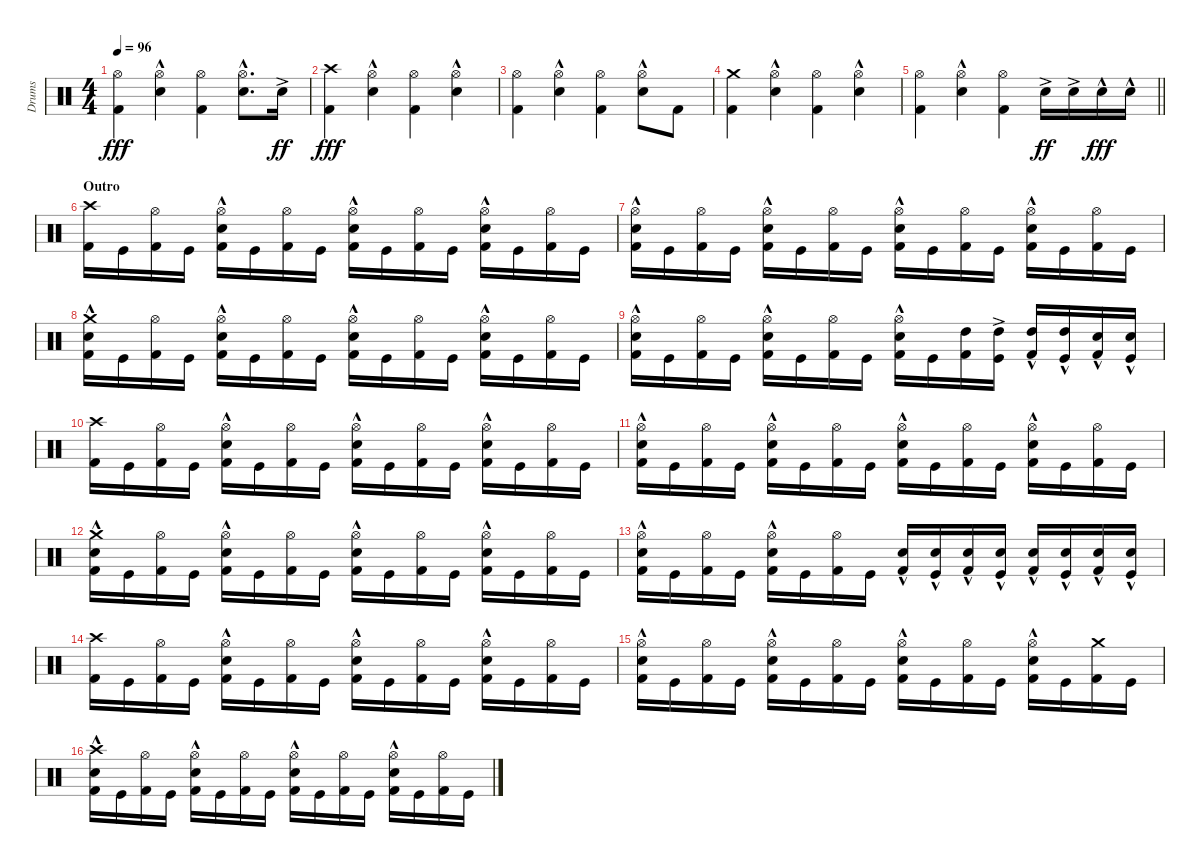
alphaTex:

\track ("Drums" "Drums") {instrument percussion}
\staff {score}
\articulation defaults
\ts (4 4)
\tempo 96
\clef neutral
\ks c
("Hi-Hat (open)" "Kick (hit) 2").4{dy fff} ("Hi-Hat (open)" "Electric Snare (hit)"{hac}).4 ("Hi-Hat (open)" "Kick (hit) 2").4 ("Hi-Hat (open)" "Electric Snare (hit)"{hac}).8{d} "Electric Snare (hit)"{ac}.16{dy ff} |
("Crash high (hit)" "Kick (hit) 2").4{dy fff} ("Hi-Hat (open)" "Electric Snare (hit)"{hac}).4 ("Hi-Hat (open)" "Kick (hit) 2").4 ("Hi-Hat (open)" "Electric Snare (hit)"{hac}).4 |
("Hi-Hat (open)" "Kick (hit) 2").4 ("Hi-Hat (open)" "Electric Snare (hit)"{hac}).4 ("Hi-Hat (open)" "Kick (hit) 2").4 ("Hi-Hat (open)" "Electric Snare (hit)"{hac}).8 "Kick (hit) 2".8 |
("Crash medium (hit)" "Kick (hit) 2").4 ("Hi-Hat (open)" "Electric Snare (hit)"{hac}).4 ("Hi-Hat (open)" "Kick (hit) 2").4 ("Hi-Hat (open)" "Electric Snare (hit)"{hac}).4 |
\barLineRight lightlight
("Hi-Hat (open)" "Kick (hit) 2").4 ("Hi-Hat (open)" "Electric Snare (hit)"{hac}).4 ("Hi-Hat (open)" "Kick (hit) 2").4 "Electric Snare (hit)"{ac}.16{dy ff} "Electric Snare (hit)"{ac}.16 "Electric Snare (hit)"{hac}.16{dy fff} "Electric Snare (hit)"{hac}.16 |
\section ("" "Outro")
("Crash high (hit)" "Kick (hit) 2").16 "Kick (hit)".16 ("Hi-Hat (open)" "Kick (hit) 2").16 "Kick (hit)".16 ("Hi-Hat (open)" "Electric Snare (hit)"{hac} "Kick (hit) 2").16 "Kick (hit)".16 ("Hi-Hat (open)" "Kick (hit) 2").16 "Kick (hit)".16 ("Hi-Hat (open)" "Electric Snare (hit)"{hac} "Kick (hit) 2").16 "Kick (hit)".16 ("Hi-Hat (open)" "Kick (hit) 2").16 "Kick (hit)".16 ("Hi-Hat (open)" "Electric Snare (hit)"{hac} "Kick (hit) 2").16 "Kick (hit)".16 ("Hi-Hat (open)" "Kick (hit) 2").16 "Kick (hit)".16 |
("Hi-Hat (open)" "Electric Snare (hit)"{hac} "Kick (hit) 2").16 "Kick (hit)".16 ("Hi-Hat (open)" "Kick (hit) 2").16 "Kick (hit)".16 ("Hi-Hat (open)" "Electric Snare (hit)"{hac} "Kick (hit) 2").16 "Kick (hit)".16 ("Hi-Hat (open)" "Kick (hit) 2").16 "Kick (hit)".16 ("Hi-Hat (open)" "Electric Snare (hit)"{hac} "Kick (hit) 2").16 "Kick (hit)".16 ("Hi-Hat (open)" "Kick (hit) 2").16 "Kick (hit)".16 ("Hi-Hat (open)" "Electric Snare (hit)"{hac} "Kick (hit) 2").16 "Kick (hit)".16 ("Hi-Hat (open)" "Kick (hit) 2").16 "Kick (hit)".16 |
("Crash medium (hit)" "Electric Snare (hit)"{hac} "Kick (hit) 2").16{volume 6} "Kick (hit)".16 ("Hi-Hat (open)" "Kick (hit) 2").16 "Kick (hit)".16 ("Hi-Hat (open)" "Electric Snare (hit)"{hac} "Kick (hit) 2").16 "Kick (hit)".16 ("Hi-Hat (open)" "Kick (hit) 2").16 "Kick (hit)".16 ("Hi-Hat (open)" "Electric Snare (hit)"{hac} "Kick (hit) 2").16 "Kick (hit)".16 ("Hi-Hat (open)" "Kick (hit) 2").16 "Kick (hit)".16 ("Hi-Hat (open)" "Electric Snare (hit)"{hac} "Kick (hit) 2").16 "Kick (hit)".16 ("Hi-Hat (open)" "Kick (hit) 2").16 "Kick (hit)".16 |
("Hi-Hat (open)" "Electric Snare (hit)"{hac} "Kick (hit) 2").16 "Kick (hit)".16 ("Hi-Hat (open)" "Kick (hit) 2").16 "Kick (hit)".16 ("Hi-Hat (open)" "Electric Snare (hit)"{hac} "Kick (hit) 2").16 "Kick (hit)".16 ("Hi-Hat (open)" "Kick (hit) 2").16 "Kick (hit)".16 ("Hi-Hat (open)" "Electric Snare (hit)"{hac} "Kick (hit) 2").16 "Kick (hit)".16 ("High Tom (hit)" "Kick (hit) 2").16 ("High Tom (hit)"{ac} "Kick (hit)").16 ("High Tom (hit)"{hac} "Kick (hit) 2").16 ("High Tom (hit)"{hac} "Kick (hit)").16 ("Electric Snare (hit)"{hac} "Kick (hit) 2").16 ("Electric Snare (hit)"{hac} "Kick (hit)").16 |
("Crash high (hit)" "Kick (hit) 2").16 "Kick (hit)".16 ("Hi-Hat (open)" "Kick (hit) 2").16 "Kick (hit)".16 ("Hi-Hat (open)" "Electric Snare (hit)"{hac} "Kick (hit) 2").16 "Kick (hit)".16 ("Hi-Hat (open)" "Kick (hit) 2").16 "Kick (hit)".16 ("Hi-Hat (open)" "Electric Snare (hit)"{hac} "Kick (hit) 2").16 "Kick (hit)".16 ("Hi-Hat (open)" "Kick (hit) 2").16 "Kick (hit)".16 ("Hi-Hat (open)" "Electric Snare (hit)"{hac} "Kick (hit) 2").16 "Kick (hit)".16 ("Hi-Hat (open)" "Kick (hit) 2").16 "Kick (hit)".16 |
("Hi-Hat (open)" "Electric Snare (hit)"{hac} "Kick (hit) 2").16 "Kick (hit)".16 ("Hi-Hat (open)" "Kick (hit) 2").16 "Kick (hit)".16 ("Hi-Hat (open)" "Electric Snare (hit)"{hac} "Kick (hit) 2").16 "Kick (hit)".16 ("Hi-Hat (open)" "Kick (hit) 2").16 "Kick (hit)".16 ("Hi-Hat (open)" "Electric Snare (hit)"{hac} "Kick (hit) 2").16 "Kick (hit)".16 ("Hi-Hat (open)" "Kick (hit) 2").16 "Kick (hit)".16 ("Hi-Hat (open)" "Electric Snare (hit)"{hac} "Kick (hit) 2").16 "Kick (hit)".16 ("Hi-Hat (open)" "Kick (hit) 2").16 "Kick (hit)".16 |
("Crash medium (hit)" "Electric Snare (hit)"{hac} "Kick (hit) 2").16{volume 2} "Kick (hit)".16 ("Hi-Hat (open)" "Kick (hit) 2").16 "Kick (hit)".16 ("Hi-Hat (open)" "Electric Snare (hit)"{hac} "Kick (hit) 2").16 "Kick (hit)".16 ("Hi-Hat (open)" "Kick (hit) 2").16 "Kick (hit)".16 ("Hi-Hat (open)" "Electric Snare (hit)"{hac} "Kick (hit) 2").16 "Kick (hit)".16 ("Hi-Hat (open)" "Kick (hit) 2").16 "Kick (hit)".16 ("Hi-Hat (open)" "Electric Snare (hit)"{hac} "Kick (hit) 2").16 "Kick (hit)".16 ("Hi-Hat (open)" "Kick (hit) 2").16 "Kick (hit)".16 |
("Hi-Hat (open)" "Electric Snare (hit)"{hac} "Kick (hit) 2").16 "Kick (hit)".16 ("Hi-Hat (open)" "Kick (hit) 2").16 "Kick (hit)".16 ("Hi-Hat (open)" "Electric Snare (hit)"{hac} "Kick (hit) 2").16 "Kick (hit)".16 ("Hi-Hat (open)" "Kick (hit) 2").16 "Kick (hit)".16 ("Electric Snare (hit)"{hac} "Kick (hit) 2").16 ("Electric Snare (hit)"{hac} "Kick (hit)").16 ("Electric Snare (hit)"{hac} "Kick (hit) 2").16 ("Electric Snare (hit)"{hac} "Kick (hit)").16 ("Electric Snare (hit)"{hac} "Kick (hit) 2").16 ("Electric Snare (hit)"{hac} "Kick (hit)").16 ("Electric Snare (hit)"{hac} "Kick (hit) 2").16 ("Electric Snare (hit)"{hac} "Kick (hit)").16 |
("Crash high (hit)" "Kick (hit) 2").16 "Kick (hit)".16 ("Hi-Hat (open)" "Kick (hit) 2").16 "Kick (hit)".16 ("Hi-Hat (open)" "Electric Snare (hit)"{hac} "Kick (hit) 2").16 "Kick (hit)".16 ("Hi-Hat (open)" "Kick (hit) 2").16 "Kick (hit)".16 ("Hi-Hat (open)" "Electric Snare (hit)"{hac} "Kick (hit) 2").16 "Kick (hit)".16 ("Hi-Hat (open)" "Kick (hit) 2").16 "Kick (hit)".16 ("Hi-Hat (open)" "Electric Snare (hit)"{hac} "Kick (hit) 2").16 "Kick (hit)".16 ("Hi-Hat (open)" "Kick (hit) 2").16 "Kick (hit)".16 |
("Hi-Hat (open)" "Electric Snare (hit)"{hac} "Kick (hit) 2").16 "Kick (hit)".16 ("Hi-Hat (open)" "Kick (hit) 2").16 "Kick (hit)".16 ("Hi-Hat (open)" "Electric Snare (hit)"{hac} "Kick (hit) 2").16 "Kick (hit)".16 ("Hi-Hat (open)" "Kick (hit) 2").16 "Kick (hit)".16 ("Hi-Hat (open)" "Electric Snare (hit)"{hac} "Kick (hit) 2").16 "Kick (hit)".16 ("Hi-Hat (open)" "Kick (hit) 2").16 "Kick (hit)".16 ("Hi-Hat (open)" "Electric Snare (hit)"{hac} "Kick (hit) 2").16 "Kick (hit)".16 ("Crash medium (hit)" "Kick (hit) 2").16 "Kick (hit)".16 |
("Crash high (hit)" "Electric Snare (hit)"{hac} "Kick (hit) 2").16{volume 0} "Kick (hit)".16 ("Hi-Hat (open)" "Kick (hit) 2").16 "Kick (hit)".16 ("Hi-Hat (open)" "Electric Snare (hit)"{hac} "Kick (hit) 2").16 "Kick (hit)".16 ("Hi-Hat (open)" "Kick (hit) 2").16 "Kick (hit)".16 ("Hi-Hat (open)" "Electric Snare (hit)"{hac} "Kick (hit) 2").16 "Kick (hit)".16 ("Hi-Hat (open)" "Kick (hit) 2").16 "Kick (hit)".16 ("Hi-Hat (open)" "Electric Snare (hit)"{hac} "Kick (hit) 2").16 "Kick (hit)".16 ("Hi-Hat (open)" "Kick (hit) 2").16 "Kick (hit)".16
